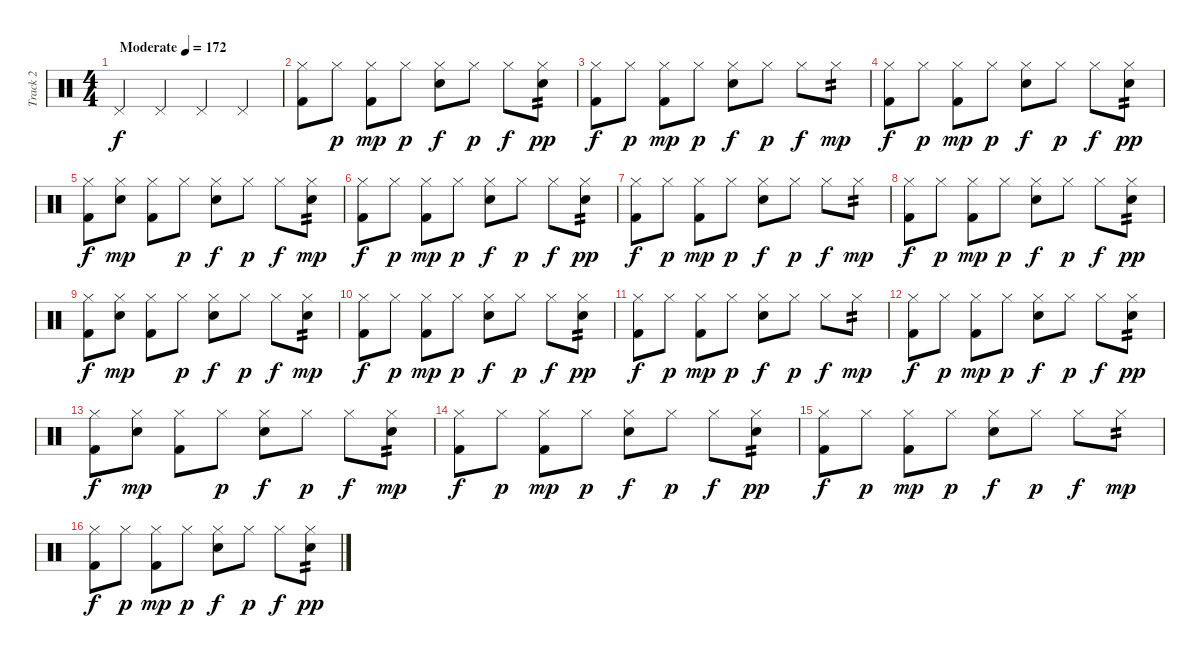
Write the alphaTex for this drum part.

\track ("Track 2" "Track 2") {instrument percussion}
\staff {score}
\articulation defaults
\ts (4 4)
\tempo (172 "Moderate")
\clef neutral
\ks c "Pedal Hi-Hat (hit)".4{dy f} "Pedal Hi-Hat (hit)".4 "Pedal Hi-Hat (hit)".4 "Pedal Hi-Hat (hit)".4
|
("Hi-Hat (closed)" "Kick (hit) 2").8 "Hi-Hat (closed)".8{dy p} ("Hi-Hat (closed)" "Kick (hit) 2").8{dy mp} "Hi-Hat (closed)".8{dy p} ("Hi-Hat (closed)" "Snare (hit) 2").8{dy f} "Hi-Hat (closed)".8{dy p} "Hi-Hat (closed)".8{dy f} ("Hi-Hat (closed)" "Snare (hit) 2").8{tp 2 dy pp} |
("Hi-Hat (closed)" "Kick (hit) 2").8{dy f} "Hi-Hat (closed)".8{dy p} ("Hi-Hat (closed)" "Kick (hit) 2").8{dy mp} "Hi-Hat (closed)".8{dy p} ("Hi-Hat (closed)" "Snare (hit) 2").8{dy f} "Hi-Hat (closed)".8{dy p} "Hi-Hat (closed)".8{dy f} "Hi-Hat (closed)".8{tp 2 dy mp} |
("Hi-Hat (closed)" "Kick (hit) 2").8{dy f} "Hi-Hat (closed)".8{dy p} ("Hi-Hat (closed)" "Kick (hit) 2").8{dy mp} "Hi-Hat (closed)".8{dy p} ("Hi-Hat (closed)" "Snare (hit) 2").8{dy f} "Hi-Hat (closed)".8{dy p} "Hi-Hat (closed)".8{dy f} ("Hi-Hat (closed)" "Snare (hit) 2").8{tp 2 dy pp} |
("Hi-Hat (closed)" "Kick (hit) 2").8{dy f} ("Hi-Hat (closed)" "Snare (hit) 2").8{dy mp} ("Hi-Hat (closed)" "Kick (hit) 2").8 "Hi-Hat (closed)".8{dy p} ("Hi-Hat (closed)" "Snare (hit) 2").8{dy f} "Hi-Hat (closed)".8{dy p} "Hi-Hat (closed)".8{dy f} ("Hi-Hat (closed)" "Snare (hit) 2").8{tp 2 dy mp} |
("Hi-Hat (closed)" "Kick (hit) 2").8{dy f} "Hi-Hat (closed)".8{dy p} ("Hi-Hat (closed)" "Kick (hit) 2").8{dy mp} "Hi-Hat (closed)".8{dy p} ("Hi-Hat (closed)" "Snare (hit) 2").8{dy f} "Hi-Hat (closed)".8{dy p} "Hi-Hat (closed)".8{dy f} ("Hi-Hat (closed)" "Snare (hit) 2").8{tp 2 dy pp} |
("Hi-Hat (closed)" "Kick (hit) 2").8{dy f} "Hi-Hat (closed)".8{dy p} ("Hi-Hat (closed)" "Kick (hit) 2").8{dy mp} "Hi-Hat (closed)".8{dy p} ("Hi-Hat (closed)" "Snare (hit) 2").8{dy f} "Hi-Hat (closed)".8{dy p} "Hi-Hat (closed)".8{dy f} "Hi-Hat (closed)".8{tp 2 dy mp} |
("Hi-Hat (closed)" "Kick (hit) 2").8{dy f} "Hi-Hat (closed)".8{dy p} ("Hi-Hat (closed)" "Kick (hit) 2").8{dy mp} "Hi-Hat (closed)".8{dy p} ("Hi-Hat (closed)" "Snare (hit) 2").8{dy f} "Hi-Hat (closed)".8{dy p} "Hi-Hat (closed)".8{dy f} ("Hi-Hat (closed)" "Snare (hit) 2").8{tp 2 dy pp} |
("Hi-Hat (closed)" "Kick (hit) 2").8{dy f} ("Hi-Hat (closed)" "Snare (hit) 2").8{dy mp} ("Hi-Hat (closed)" "Kick (hit) 2").8 "Hi-Hat (closed)".8{dy p} ("Hi-Hat (closed)" "Snare (hit) 2").8{dy f} "Hi-Hat (closed)".8{dy p} "Hi-Hat (closed)".8{dy f} ("Hi-Hat (closed)" "Snare (hit) 2").8{tp 2 dy mp} |
("Hi-Hat (closed)" "Kick (hit) 2").8{dy f} "Hi-Hat (closed)".8{dy p} ("Hi-Hat (closed)" "Kick (hit) 2").8{dy mp} "Hi-Hat (closed)".8{dy p} ("Hi-Hat (closed)" "Snare (hit) 2").8{dy f} "Hi-Hat (closed)".8{dy p} "Hi-Hat (closed)".8{dy f} ("Hi-Hat (closed)" "Snare (hit) 2").8{tp 2 dy pp} |
("Hi-Hat (closed)" "Kick (hit) 2").8{dy f} "Hi-Hat (closed)".8{dy p} ("Hi-Hat (closed)" "Kick (hit) 2").8{dy mp} "Hi-Hat (closed)".8{dy p} ("Hi-Hat (closed)" "Snare (hit) 2").8{dy f} "Hi-Hat (closed)".8{dy p} "Hi-Hat (closed)".8{dy f} "Hi-Hat (closed)".8{tp 2 dy mp} |
("Hi-Hat (closed)" "Kick (hit) 2").8{dy f} "Hi-Hat (closed)".8{dy p} ("Hi-Hat (closed)" "Kick (hit) 2").8{dy mp} "Hi-Hat (closed)".8{dy p} ("Hi-Hat (closed)" "Snare (hit) 2").8{dy f} "Hi-Hat (closed)".8{dy p} "Hi-Hat (closed)".8{dy f} ("Hi-Hat (closed)" "Snare (hit) 2").8{tp 2 dy pp} |
("Hi-Hat (closed)" "Kick (hit) 2").8{dy f} ("Hi-Hat (closed)" "Snare (hit) 2").8{dy mp} ("Hi-Hat (closed)" "Kick (hit) 2").8 "Hi-Hat (closed)".8{dy p} ("Hi-Hat (closed)" "Snare (hit) 2").8{dy f} "Hi-Hat (closed)".8{dy p} "Hi-Hat (closed)".8{dy f} ("Hi-Hat (closed)" "Snare (hit) 2").8{tp 2 dy mp} |
("Hi-Hat (closed)" "Kick (hit) 2").8{dy f} "Hi-Hat (closed)".8{dy p} ("Hi-Hat (closed)" "Kick (hit) 2").8{dy mp} "Hi-Hat (closed)".8{dy p} ("Hi-Hat (closed)" "Snare (hit) 2").8{dy f} "Hi-Hat (closed)".8{dy p} "Hi-Hat (closed)".8{dy f} ("Hi-Hat (closed)" "Snare (hit) 2").8{tp 2 dy pp} |
("Hi-Hat (closed)" "Kick (hit) 2").8{dy f} "Hi-Hat (closed)".8{dy p} ("Hi-Hat (closed)" "Kick (hit) 2").8{dy mp} "Hi-Hat (closed)".8{dy p} ("Hi-Hat (closed)" "Snare (hit) 2").8{dy f} "Hi-Hat (closed)".8{dy p} "Hi-Hat (closed)".8{dy f} "Hi-Hat (closed)".8{tp 2 dy mp} |
("Hi-Hat (closed)" "Kick (hit) 2").8{dy f} "Hi-Hat (closed)".8{dy p} ("Hi-Hat (closed)" "Kick (hit) 2").8{dy mp} "Hi-Hat (closed)".8{dy p} ("Hi-Hat (closed)" "Snare (hit) 2").8{dy f} "Hi-Hat (closed)".8{dy p} "Hi-Hat (closed)".8{dy f} ("Hi-Hat (closed)" "Snare (hit) 2").8{tp 2 dy pp}
